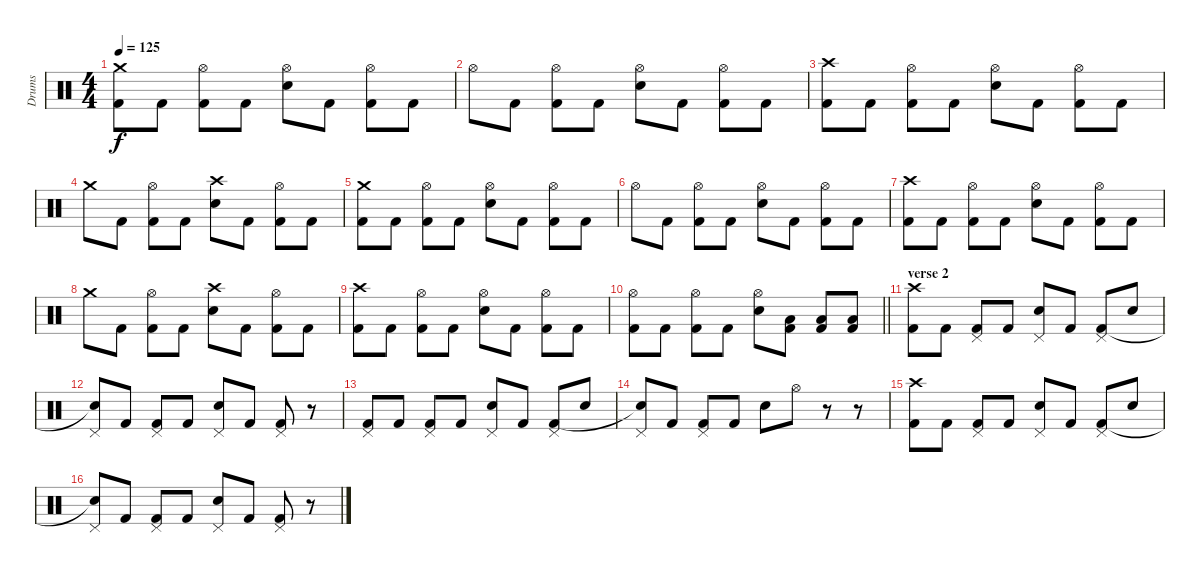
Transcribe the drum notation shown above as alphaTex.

\track ("Drums" "Drums") {instrument percussion}
\staff {score}
\articulation defaults
\ts (4 4)
\tempo 125
\clef neutral
\ks c
("Crash medium (hit)" "Kick (hit) 2").8{dy f} "Kick (hit) 2".8 ("Hi-Hat (open)" "Kick (hit) 2").8 "Kick (hit) 2".8 ("Hi-Hat (open)" "Snare (hit) 2").8 "Kick (hit) 2".8 ("Hi-Hat (open)" "Kick (hit) 2").8 "Kick (hit) 2".8 |
"Hi-Hat (open)".8 "Kick (hit) 2".8 ("Hi-Hat (open)" "Kick (hit) 2").8 "Kick (hit) 2".8 ("Hi-Hat (open)" "Snare (hit) 2").8 "Kick (hit) 2".8 ("Hi-Hat (open)" "Kick (hit) 2").8 "Kick (hit) 2".8 |
("Crash high (hit)" "Kick (hit) 2").8 "Kick (hit) 2".8 ("Hi-Hat (open)" "Kick (hit) 2").8 "Kick (hit) 2".8 ("Hi-Hat (open)" "Snare (hit) 2").8 "Kick (hit) 2".8 ("Hi-Hat (open)" "Kick (hit) 2").8 "Kick (hit) 2".8 |
"Crash medium (hit)".8 "Kick (hit) 2".8 ("Hi-Hat (open)" "Kick (hit) 2").8 "Kick (hit) 2".8 ("Crash high (hit)" "Snare (hit) 2").8 "Kick (hit) 2".8 ("Hi-Hat (open)" "Kick (hit) 2").8 "Kick (hit) 2".8 |
("Crash medium (hit)" "Kick (hit) 2").8 "Kick (hit) 2".8 ("Hi-Hat (open)" "Kick (hit) 2").8 "Kick (hit) 2".8 ("Hi-Hat (open)" "Snare (hit) 2").8 "Kick (hit) 2".8 ("Hi-Hat (open)" "Kick (hit) 2").8 "Kick (hit) 2".8 |
"Hi-Hat (open)".8 "Kick (hit) 2".8 ("Hi-Hat (open)" "Kick (hit) 2").8 "Kick (hit) 2".8 ("Hi-Hat (open)" "Snare (hit) 2").8 "Kick (hit) 2".8 ("Hi-Hat (open)" "Kick (hit) 2").8 "Kick (hit) 2".8 |
("Crash high (hit)" "Kick (hit) 2").8 "Kick (hit) 2".8 ("Hi-Hat (open)" "Kick (hit) 2").8 "Kick (hit) 2".8 ("Hi-Hat (open)" "Snare (hit) 2").8 "Kick (hit) 2".8 ("Hi-Hat (open)" "Kick (hit) 2").8 "Kick (hit) 2".8 |
"Crash medium (hit)".8 "Kick (hit) 2".8 ("Hi-Hat (open)" "Kick (hit) 2").8 "Kick (hit) 2".8 ("Crash high (hit)" "Snare (hit) 2").8 "Kick (hit) 2".8 ("Hi-Hat (open)" "Kick (hit) 2").8 "Kick (hit) 2".8 |
("Crash high (hit)" "Kick (hit) 2").8 "Kick (hit) 2".8 ("Hi-Hat (open)" "Kick (hit) 2").8 "Kick (hit) 2".8 ("Hi-Hat (open)" "Snare (hit) 2").8 "Kick (hit) 2".8 ("Hi-Hat (open)" "Kick (hit) 2").8 "Kick (hit) 2".8 |
\barLineRight lightlight
("Hi-Hat (open)" "Kick (hit) 2").8 "Kick (hit) 2".8 ("Hi-Hat (open)" "Kick (hit) 2").8 "Kick (hit) 2".8 ("Hi-Hat (open)" "Snare (hit) 2").8 ("Low Floor Tom (hit)" "Kick (hit) 2").8 ("Low Floor Tom (hit)" "Kick (hit) 2").8 ("Low Floor Tom (hit)" "Kick (hit) 2").8 |
\section ("" "verse 2")
("Crash high (hit)" "Kick (hit) 2").8 "Kick (hit) 2".8 ("Pedal Hi-Hat (hit)" "Kick (hit) 2").8 "Kick (hit) 2".8 ("Pedal Hi-Hat (hit)" "Snare (hit) 2").8 "Kick (hit) 2".8 ("Pedal Hi-Hat (hit)" "Kick (hit) 2").8 "Snare (hit) 2".8 |
("Pedal Hi-Hat (hit)" "Snare (hit)"{t}).8 "Kick (hit) 2".8 ("Pedal Hi-Hat (hit)" "Kick (hit) 2").8 "Kick (hit) 2".8 ("Pedal Hi-Hat (hit)" "Snare (hit) 2").8 "Kick (hit) 2".8 ("Pedal Hi-Hat (hit)" "Kick (hit) 2").8 r.8 |
("Pedal Hi-Hat (hit)" "Kick (hit) 2").8 "Kick (hit) 2".8 ("Pedal Hi-Hat (hit)" "Kick (hit) 2").8 "Kick (hit) 2".8 ("Pedal Hi-Hat (hit)" "Snare (hit) 2").8 "Kick (hit) 2".8 ("Pedal Hi-Hat (hit)" "Kick (hit) 2").8 "Snare (hit) 2".8 |
("Pedal Hi-Hat (hit)" "Snare (hit)"{t}).8 "Kick (hit) 2".8 ("Pedal Hi-Hat (hit)" "Kick (hit) 2").8 "Kick (hit) 2".8 "Snare (hit) 2".8 "Hi-Hat (open)".8 r.8 r.8 |
("Crash high (hit)" "Kick (hit) 2").8 "Kick (hit) 2".8 ("Pedal Hi-Hat (hit)" "Kick (hit) 2").8 "Kick (hit) 2".8 ("Pedal Hi-Hat (hit)" "Snare (hit) 2").8 "Kick (hit) 2".8 ("Pedal Hi-Hat (hit)" "Kick (hit) 2").8 "Snare (hit) 2".8 |
("Pedal Hi-Hat (hit)" "Snare (hit)"{t}).8 "Kick (hit) 2".8 ("Pedal Hi-Hat (hit)" "Kick (hit) 2").8 "Kick (hit) 2".8 ("Pedal Hi-Hat (hit)" "Snare (hit) 2").8 "Kick (hit) 2".8 ("Pedal Hi-Hat (hit)" "Kick (hit) 2").8 r.8
